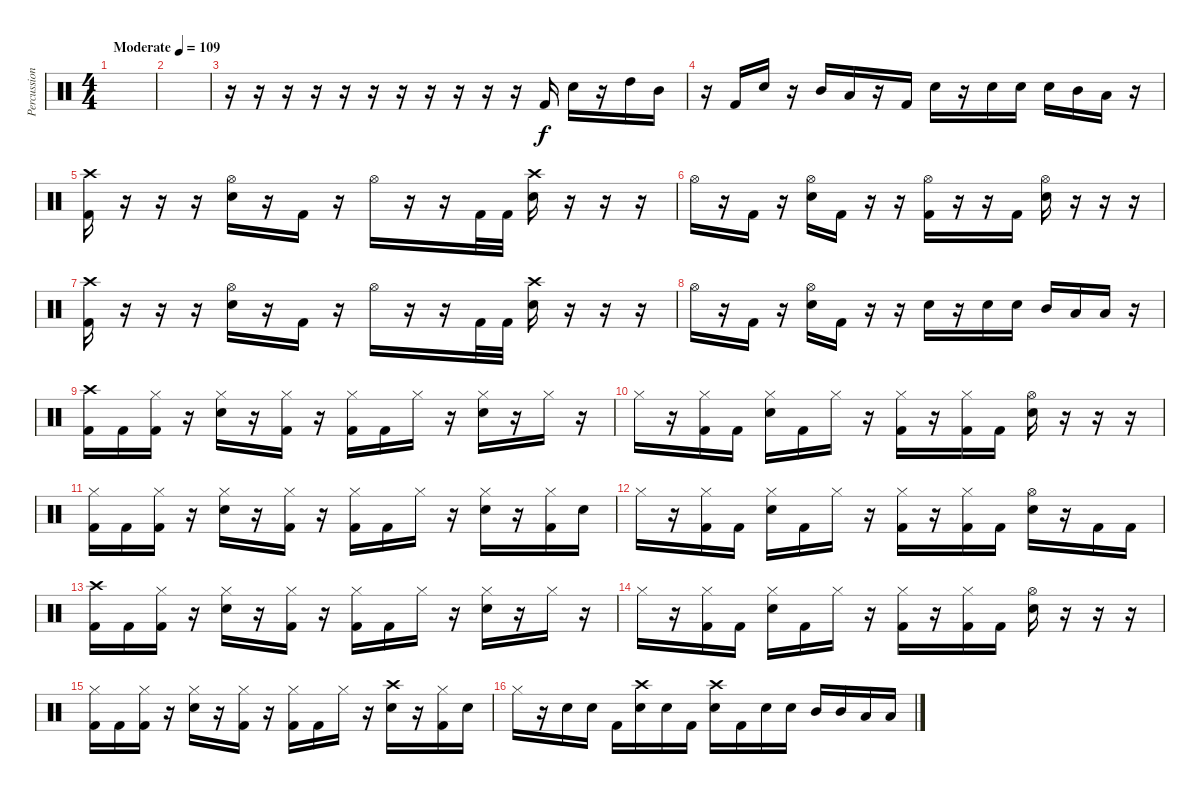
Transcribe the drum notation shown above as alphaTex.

\track ("Percussion" "Percussion") {instrument percussion}
\staff {score}
\articulation defaults
\ts (4 4)
\tempo (109 "Moderate")
\clef neutral
\ks c
|
|
r.16 r.16 r.16 r.16 r.16 r.16 r.16 r.16 r.16 r.16 r.16 "Kick (hit) 2".16 "Snare (hit) 2".16 r.16 "High Tom (hit)".16 "Mid Tom (hit)".16 |
r.16 "Kick (hit) 2".16 "Snare (hit) 2".16 r.16 "Mid Tom (hit)".16 "Low Tom (hit)".16 r.16 "Kick (hit) 2".16 "Snare (hit) 2".16 r.16 "Snare (hit) 2".16 "Snare (hit) 2".16 "Snare (hit) 2".16 "Mid Tom (hit)".16 "Low Tom (hit)".16 r.16 |
("Crash high (hit)" "Kick (hit) 2").16 r.16 r.16 r.16 ("Hi-Hat (open)" "Snare (hit) 2").16 r.16 "Kick (hit) 2".16 r.16 "Hi-Hat (open)".16 r.16 r.16 "Kick (hit) 2".32 "Kick (hit) 2".32 ("Crash high (hit)" "Snare (hit) 2").16 r.16 r.16 r.16 |
"Hi-Hat (open)".16 r.16 "Kick (hit) 2".16 r.16 ("Hi-Hat (open)" "Snare (hit) 2").16 "Kick (hit) 2".16 r.16 r.16 ("Hi-Hat (open)" "Kick (hit) 2").16 r.16 r.16 "Kick (hit) 2".16 ("Hi-Hat (open)" "Snare (hit) 2").16 r.16 r.16 r.16 |
("Crash high (hit)" "Kick (hit) 2").16 r.16 r.16 r.16 ("Hi-Hat (open)" "Snare (hit) 2").16 r.16 "Kick (hit) 2".16 r.16 "Hi-Hat (open)".16 r.16 r.16 "Kick (hit) 2".32 "Kick (hit) 2".32 ("Crash high (hit)" "Snare (hit) 2").16 r.16 r.16 r.16 |
"Hi-Hat (open)".16 r.16 "Kick (hit) 2".16 r.16 ("Hi-Hat (open)" "Snare (hit) 2").16 "Kick (hit) 2".16 r.16 r.16 "Snare (hit) 2".16 r.16 "Snare (hit) 2".16 "Snare (hit) 2".16 "Mid Tom (hit)".16 "Low Tom (hit)".16 "Low Tom (hit)".16 r.16 |
("Crash high (hit)" "Kick (hit) 2").16 "Kick (hit) 2".16 ("Hi-Hat (closed)" "Kick (hit) 2").16 r.16 ("Hi-Hat (closed)" "Snare (hit) 2").16 r.16 ("Hi-Hat (closed)" "Kick (hit) 2").16 r.16 ("Hi-Hat (closed)" "Kick (hit) 2").16 "Kick (hit) 2".16 "Hi-Hat (closed)".16 r.16 ("Hi-Hat (closed)" "Snare (hit) 2").16 r.16 "Hi-Hat (closed)".16 r.16 |
"Hi-Hat (closed)".16 r.16 ("Hi-Hat (closed)" "Kick (hit) 2").16 "Kick (hit) 2".16 ("Hi-Hat (closed)" "Snare (hit) 2").16 "Kick (hit) 2".16 "Hi-Hat (closed)".16 r.16 ("Hi-Hat (closed)" "Kick (hit) 2").16 r.16 ("Hi-Hat (closed)" "Kick (hit) 2").16 "Kick (hit) 2".16 ("Hi-Hat (open)" "Snare (hit) 2").16 r.16 r.16 r.16 |
("Hi-Hat (closed)" "Kick (hit) 2").16 "Kick (hit) 2".16 ("Hi-Hat (closed)" "Kick (hit) 2").16 r.16 ("Hi-Hat (closed)" "Snare (hit) 2").16 r.16 ("Hi-Hat (closed)" "Kick (hit) 2").16 r.16 ("Hi-Hat (closed)" "Kick (hit) 2").16 "Kick (hit) 2".16 "Hi-Hat (closed)".16 r.16 ("Hi-Hat (closed)" "Snare (hit) 2").16 r.16 ("Hi-Hat (closed)" "Kick (hit) 2").16 "Snare (hit) 2".16 |
"Hi-Hat (closed)".16 r.16 ("Hi-Hat (closed)" "Kick (hit) 2").16 "Kick (hit) 2".16 ("Hi-Hat (closed)" "Snare (hit) 2").16 "Kick (hit) 2".16 "Hi-Hat (closed)".16 r.16 ("Hi-Hat (closed)" "Kick (hit) 2").16 r.16 ("Hi-Hat (closed)" "Kick (hit) 2").16 "Kick (hit) 2".16 ("Hi-Hat (open)" "Snare (hit) 2").16 r.16 "Kick (hit) 2".16 "Kick (hit) 2".16 |
("Crash high (hit)" "Kick (hit) 2").16 "Kick (hit) 2".16 ("Hi-Hat (closed)" "Kick (hit) 2").16 r.16 ("Hi-Hat (closed)" "Snare (hit) 2").16 r.16 ("Hi-Hat (closed)" "Kick (hit) 2").16 r.16 ("Hi-Hat (closed)" "Kick (hit) 2").16 "Kick (hit) 2".16 "Hi-Hat (closed)".16 r.16 ("Hi-Hat (closed)" "Snare (hit) 2").16 r.16 "Hi-Hat (closed)".16 r.16 |
"Hi-Hat (closed)".16 r.16 ("Hi-Hat (closed)" "Kick (hit) 2").16 "Kick (hit) 2".16 ("Hi-Hat (closed)" "Snare (hit) 2").16 "Kick (hit) 2".16 "Hi-Hat (closed)".16 r.16 ("Hi-Hat (closed)" "Kick (hit) 2").16 r.16 ("Hi-Hat (closed)" "Kick (hit) 2").16 "Kick (hit) 2".16 ("Hi-Hat (open)" "Snare (hit) 2").16 r.16 r.16 r.16 |
("Hi-Hat (closed)" "Kick (hit) 2").16 "Kick (hit) 2".16 ("Hi-Hat (closed)" "Kick (hit) 2").16 r.16 ("Hi-Hat (closed)" "Snare (hit) 2").16 r.16 ("Hi-Hat (closed)" "Kick (hit) 2").16 r.16 ("Hi-Hat (closed)" "Kick (hit) 2").16 "Kick (hit) 2".16 "Hi-Hat (closed)".16 r.16 ("Crash high (hit)" "Snare (hit) 2").16 r.16 ("Hi-Hat (closed)" "Kick (hit) 2").16 "Snare (hit) 2".16 |
"Hi-Hat (closed)".16 r.16 "Snare (hit) 2".16 "Snare (hit) 2".16 "Kick (hit) 2".16 ("Crash high (hit)" "Snare (hit) 2").16 "Snare (hit) 2".16 "Kick (hit) 2".16 ("Crash high (hit)" "Snare (hit) 2").16 "Kick (hit) 2".16 "Snare (hit) 2".16 "Snare (hit) 2".16 "Mid Tom (hit)".16 "Mid Tom (hit)".16 "Low Tom (hit)".16 "Low Tom (hit)".16
